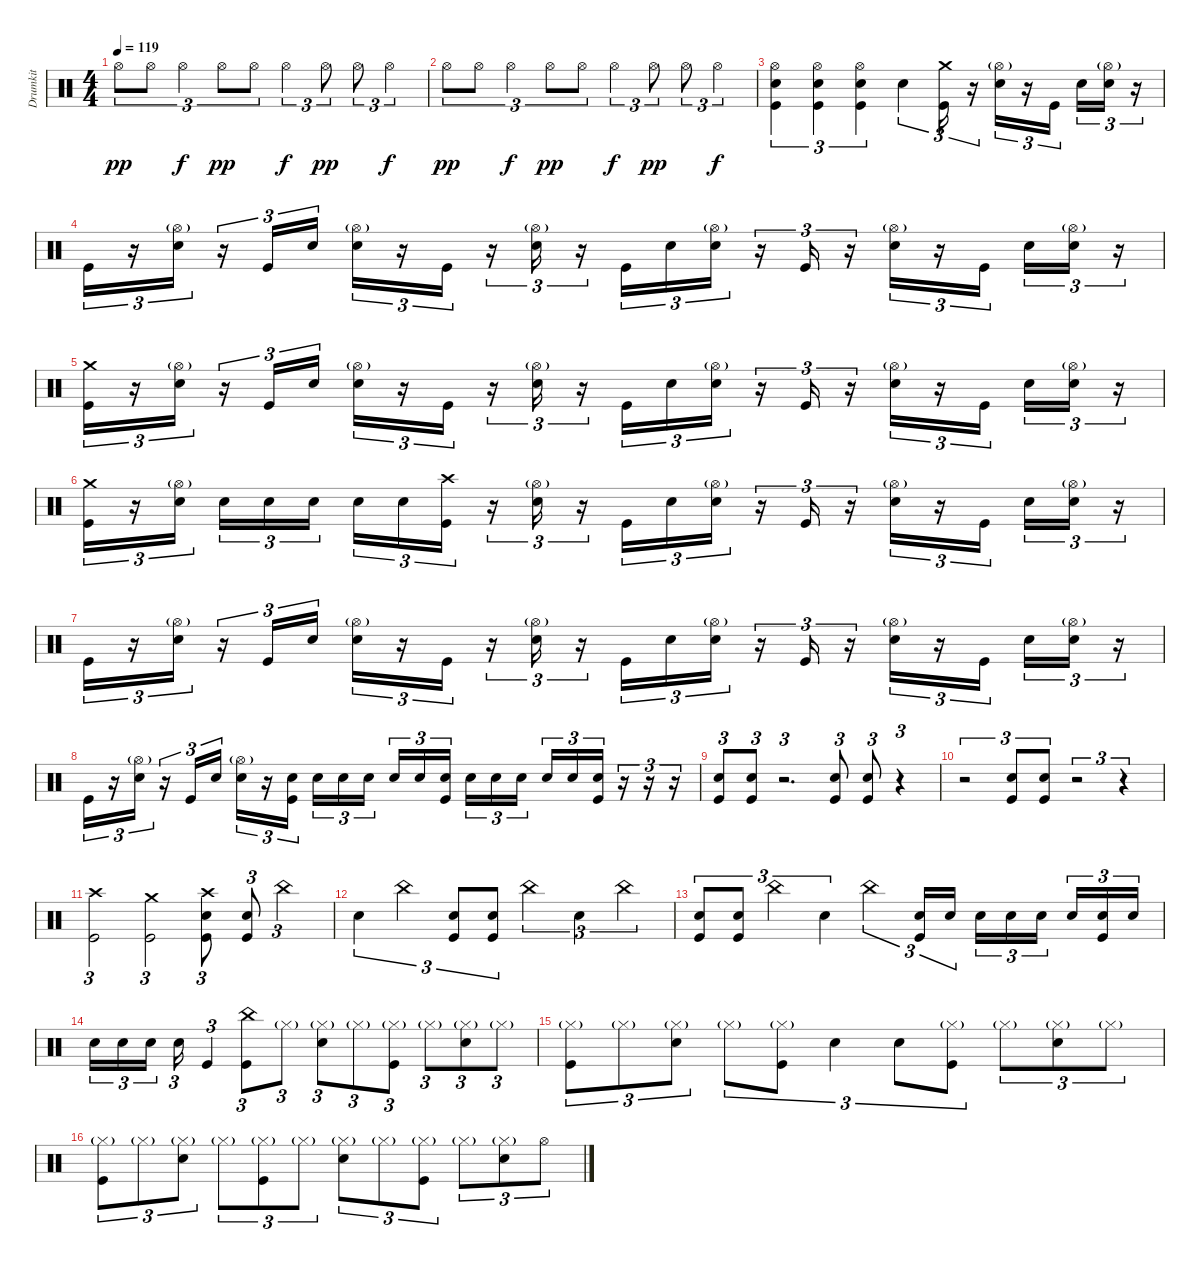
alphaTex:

\track ("Drumkit" "Drumkit") {instrument percussion}
\staff {score}
\articulation defaults
\ts (4 4)
\tempo 119
\clef neutral
\ks c "Hi-Hat (open)".8{tu (3 2) dy pp} "Hi-Hat (open)".8{tu (3 2)} "Hi-Hat (open)".4{tu (3 2) dy f} "Hi-Hat (open)".8{tu (3 2) dy pp} "Hi-Hat (open)".8{tu (3 2)} "Hi-Hat (open)".4{tu (3 2) dy f} "Hi-Hat (open)".8{tu (3 2) dy pp} "Hi-Hat (open)".8{tu (3 2)} "Hi-Hat (open)".4{tu (3 2) dy f}
|
"Hi-Hat (open)".8{tu (3 2) dy pp} "Hi-Hat (open)".8{tu (3 2)} "Hi-Hat (open)".4{tu (3 2) dy f} "Hi-Hat (open)".8{tu (3 2) dy pp} "Hi-Hat (open)".8{tu (3 2)} "Hi-Hat (open)".4{tu (3 2) dy f} "Hi-Hat (open)".8{tu (3 2) dy pp} "Hi-Hat (open)".8{tu (3 2)} "Hi-Hat (open)".4{tu (3 2) dy f} |
("Kick (hit)" "Hi-Hat (open)" "Snare (hit) 2").4{tu (3 2)} ("Kick (hit)" "Hi-Hat (open)" "Snare (hit) 2").4{tu (3 2)} ("Kick (hit)" "Hi-Hat (open)" "Snare (hit) 2").4{tu (3 2)} "Snare (hit) 2".4{tu (3 2)} ("Kick (hit)" "Crash medium (hit)").16{tu (3 2)} r.16{tu (3 2)} ("Snare (hit) 2" "Hi-Hat (open)"{g}).16{tu (3 2)} r.16{tu (3 2)} "Kick (hit)".16{tu (3 2)} "Snare (hit) 2".16{tu (3 2)} ("Snare (hit) 2" "Hi-Hat (open)"{g}).16{tu (3 2)} r.16{tu (3 2)} |
"Kick (hit)".16{tu (3 2)} r.16{tu (3 2)} ("Snare (hit) 2" "Hi-Hat (open)"{g}).16{tu (3 2)} r.16{tu (3 2)} "Kick (hit)".16{tu (3 2)} "Snare (hit) 2".16{tu (3 2)} ("Snare (hit) 2" "Hi-Hat (open)"{g}).16{tu (3 2)} r.16{tu (3 2)} "Kick (hit)".16{tu (3 2)} r.16{tu (3 2)} ("Snare (hit) 2" "Hi-Hat (open)"{g}).16{tu (3 2)} r.16{tu (3 2)} "Kick (hit)".16{tu (3 2)} "Snare (hit) 2".16{tu (3 2)} ("Snare (hit) 2" "Hi-Hat (open)"{g}).16{tu (3 2)} r.16{tu (3 2)} "Kick (hit)".16{tu (3 2)} r.16{tu (3 2)} ("Snare (hit) 2" "Hi-Hat (open)"{g}).16{tu (3 2)} r.16{tu (3 2)} "Kick (hit)".16{tu (3 2)} "Snare (hit) 2".16{tu (3 2)} ("Snare (hit) 2" "Hi-Hat (open)"{g}).16{tu (3 2)} r.16{tu (3 2)} |
("Kick (hit)" "Crash medium (hit)").16{tu (3 2)} r.16{tu (3 2)} ("Snare (hit) 2" "Hi-Hat (open)"{g}).16{tu (3 2)} r.16{tu (3 2)} "Kick (hit)".16{tu (3 2)} "Snare (hit) 2".16{tu (3 2)} ("Snare (hit) 2" "Hi-Hat (open)"{g}).16{tu (3 2)} r.16{tu (3 2)} "Kick (hit)".16{tu (3 2)} r.16{tu (3 2)} ("Snare (hit) 2" "Hi-Hat (open)"{g}).16{tu (3 2)} r.16{tu (3 2)} "Kick (hit)".16{tu (3 2)} "Snare (hit) 2".16{tu (3 2)} ("Snare (hit) 2" "Hi-Hat (open)"{g}).16{tu (3 2)} r.16{tu (3 2)} "Kick (hit)".16{tu (3 2)} r.16{tu (3 2)} ("Snare (hit) 2" "Hi-Hat (open)"{g}).16{tu (3 2)} r.16{tu (3 2)} "Kick (hit)".16{tu (3 2)} "Snare (hit) 2".16{tu (3 2)} ("Snare (hit) 2" "Hi-Hat (open)"{g}).16{tu (3 2)} r.16{tu (3 2)} |
("Kick (hit)" "Crash medium (hit)").16{tu (3 2)} r.16{tu (3 2)} ("Snare (hit) 2" "Hi-Hat (open)"{g}).16{tu (3 2)} "Snare (hit) 2".16{tu (3 2)} "Snare (hit) 2".16{tu (3 2)} "Snare (hit) 2".16{tu (3 2)} "Snare (hit) 2".16{tu (3 2)} "Snare (hit) 2".16{tu (3 2)} ("Kick (hit)" "Crash high (hit)").16{tu (3 2)} r.16{tu (3 2)} ("Snare (hit) 2" "Hi-Hat (open)"{g}).16{tu (3 2)} r.16{tu (3 2)} "Kick (hit)".16{tu (3 2)} "Snare (hit) 2".16{tu (3 2)} ("Snare (hit) 2" "Hi-Hat (open)"{g}).16{tu (3 2)} r.16{tu (3 2)} "Kick (hit)".16{tu (3 2)} r.16{tu (3 2)} ("Snare (hit) 2" "Hi-Hat (open)"{g}).16{tu (3 2)} r.16{tu (3 2)} "Kick (hit)".16{tu (3 2)} "Snare (hit) 2".16{tu (3 2)} ("Snare (hit) 2" "Hi-Hat (open)"{g}).16{tu (3 2)} r.16{tu (3 2)} |
"Kick (hit)".16{tu (3 2)} r.16{tu (3 2)} ("Snare (hit) 2" "Hi-Hat (open)"{g}).16{tu (3 2)} r.16{tu (3 2)} "Kick (hit)".16{tu (3 2)} "Snare (hit) 2".16{tu (3 2)} ("Snare (hit) 2" "Hi-Hat (open)"{g}).16{tu (3 2)} r.16{tu (3 2)} "Kick (hit)".16{tu (3 2)} r.16{tu (3 2)} ("Snare (hit) 2" "Hi-Hat (open)"{g}).16{tu (3 2)} r.16{tu (3 2)} "Kick (hit)".16{tu (3 2)} "Snare (hit) 2".16{tu (3 2)} ("Snare (hit) 2" "Hi-Hat (open)"{g}).16{tu (3 2)} r.16{tu (3 2)} "Kick (hit)".16{tu (3 2)} r.16{tu (3 2)} ("Snare (hit) 2" "Hi-Hat (open)"{g}).16{tu (3 2)} r.16{tu (3 2)} "Kick (hit)".16{tu (3 2)} "Snare (hit) 2".16{tu (3 2)} ("Snare (hit) 2" "Hi-Hat (open)"{g}).16{tu (3 2)} r.16{tu (3 2)} |
"Kick (hit)".16{tu (3 2)} r.16{tu (3 2)} ("Snare (hit) 2" "Hi-Hat (open)"{g}).16{tu (3 2)} r.16{tu (3 2)} "Kick (hit)".16{tu (3 2)} "Snare (hit) 2".16{tu (3 2)} ("Snare (hit) 2" "Hi-Hat (open)"{g}).16{tu (3 2)} r.16{tu (3 2)} ("Kick (hit)" "Snare (hit) 2").16{tu (3 2)} "Snare (hit) 2".16{tu (3 2)} "Snare (hit) 2".16{tu (3 2)} "Snare (hit) 2".16{tu (3 2)} "Snare (hit) 2".16{tu (3 2)} "Snare (hit) 2".16{tu (3 2)} ("Snare (hit) 2" "Kick (hit)").16{tu (3 2)} "Snare (hit) 2".16{tu (3 2)} "Snare (hit) 2".16{tu (3 2)} "Snare (hit) 2".16{tu (3 2)} "Snare (hit) 2".16{tu (3 2)} "Snare (hit) 2".16{tu (3 2)} ("Snare (hit) 2" "Kick (hit)").16{tu (3 2)} r.16{tu (3 2)} r.16{tu (3 2)} r.16{tu (3 2)} |
("Kick (hit)" "Snare (hit) 2").8{tu (3 2)} ("Kick (hit)" "Snare (hit) 2").8{tu (3 2)} r.2{d tu (3 2)} ("Kick (hit)" "Snare (hit) 2").8{tu (3 2)} ("Kick (hit)" "Snare (hit) 2").8{tu (3 2)} r.4{tu (3 2)} |
r.2{tu (3 2)} ("Kick (hit)" "Snare (hit) 2").8{tu (3 2)} ("Kick (hit)" "Snare (hit) 2").8{tu (3 2)} r.2{tu (3 2)} r.4{tu (3 2)} |
("Kick (hit)" "Crash high (hit)").2{tu (3 2)} ("Kick (hit)" "Crash medium (hit)").2{tu (3 2)} ("Kick (hit)" "Crash high (hit)" "Snare (hit) 2").8{tu (3 2)} ("Kick (hit)" "Snare (hit) 2").8{tu (3 2)} "China (hit)".4{tu (3 2)} |
"Snare (hit) 2".4{tu (3 2)} "China (hit)".4{tu (3 2)} ("Kick (hit)" "Snare (hit) 2").8{tu (3 2)} ("Kick (hit)" "Snare (hit) 2").8{tu (3 2)} "China (hit)".4{tu (3 2)} "Snare (hit) 2".4{tu (3 2)} "China (hit)".4{tu (3 2)} |
("Kick (hit)" "Snare (hit) 2").8{tu (3 2)} ("Kick (hit)" "Snare (hit) 2").8{tu (3 2)} "China (hit)".4{tu (3 2)} "Snare (hit) 2".4{tu (3 2)} "China (hit)".4{tu (3 2)} ("Kick (hit)" "Snare (hit) 2").16{tu (3 2)} "Snare (hit) 2".16{tu (3 2)} "Snare (hit) 2".16{tu (3 2)} "Snare (hit) 2".16{tu (3 2)} "Snare (hit) 2".16{tu (3 2)} "Snare (hit) 2".16{tu (3 2)} ("Snare (hit) 2" "Kick (hit)").16{tu (3 2)} "Snare (hit) 2".16{tu (3 2)} |
"Snare (hit) 2".16{tu (3 2)} "Snare (hit) 2".16{tu (3 2)} "Snare (hit) 2".16{tu (3 2)} "Snare (hit) 2".16{tu (3 2)} "Kick (hit)".4{tu (3 2)} ("Kick (hit)" "China (hit)").8{tu (3 2)} "Hi-Hat (closed)"{g}.8{tu (3 2)} ("Snare (hit) 2" "Hi-Hat (closed)"{g}).8{tu (3 2)} "Hi-Hat (closed)"{g}.8{tu (3 2)} ("Kick (hit)" "Hi-Hat (closed)"{g}).8{tu (3 2)} "Hi-Hat (closed)"{g}.8{tu (3 2)} ("Snare (hit) 2" "Hi-Hat (closed)"{g}).8{tu (3 2)} "Hi-Hat (closed)"{g}.8{tu (3 2)} |
("Kick (hit)" "Hi-Hat (closed)"{g}).8{tu (3 2)} "Hi-Hat (closed)"{g}.8{tu (3 2)} ("Snare (hit) 2" "Hi-Hat (closed)"{g}).8{tu (3 2)} "Hi-Hat (closed)"{g}.8{tu (3 2)} ("Kick (hit)" "Hi-Hat (closed)"{g}).8{tu (3 2)} "Snare (hit) 2".4{tu (3 2)} "Snare (hit) 2".8{tu (3 2)} ("Kick (hit)" "Hi-Hat (closed)"{g}).8{tu (3 2)} "Hi-Hat (closed)"{g}.8{tu (3 2)} ("Snare (hit) 2" "Hi-Hat (closed)"{g}).8{tu (3 2)} "Hi-Hat (closed)"{g}.8{tu (3 2)} |
("Kick (hit)" "Hi-Hat (closed)"{g}).8{tu (3 2)} "Hi-Hat (closed)"{g}.8{tu (3 2)} ("Snare (hit) 2" "Hi-Hat (closed)"{g}).8{tu (3 2)} "Hi-Hat (closed)"{g}.8{tu (3 2)} ("Hi-Hat (closed)"{g} "Kick (hit)").8{tu (3 2)} "Hi-Hat (closed)"{g}.8{tu (3 2)} ("Hi-Hat (closed)"{g} "Snare (hit) 2").8{tu (3 2)} "Hi-Hat (closed)"{g}.8{tu (3 2)} ("Hi-Hat (closed)"{g} "Kick (hit)").8{tu (3 2)} "Hi-Hat (closed)"{g}.8{tu (3 2)} ("Hi-Hat (closed)"{g} "Snare (hit) 2").8{tu (3 2)} "Hi-Hat (open)".8{tu (3 2)}
